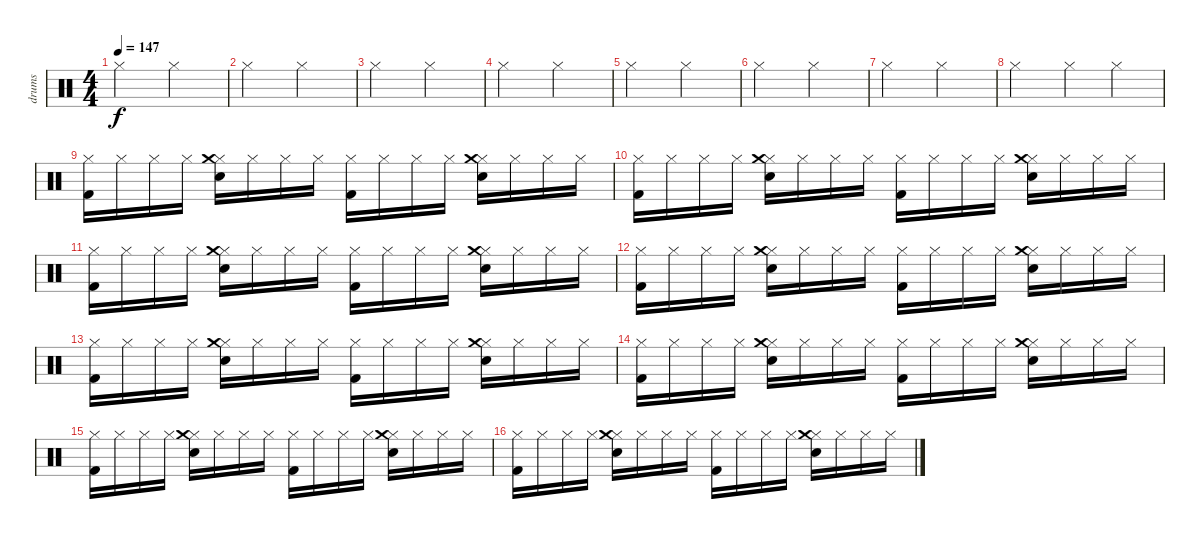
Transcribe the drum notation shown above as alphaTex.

\track ("drums" "drums") {instrument percussion}
\staff {score}
\articulation defaults
\ts (4 4)
\tempo 147
\clef neutral
\ks c "Hi-Hat (closed)".2{dy f} "Hi-Hat (closed)".2
|
"Hi-Hat (closed)".2 "Hi-Hat (closed)".2 |
"Hi-Hat (closed)".2 "Hi-Hat (closed)".2 |
"Hi-Hat (closed)".2 "Hi-Hat (closed)".2 |
"Hi-Hat (closed)".2 "Hi-Hat (closed)".2 |
"Hi-Hat (closed)".2 "Hi-Hat (closed)".2 |
"Hi-Hat (closed)".2 "Hi-Hat (closed)".2 |
"Hi-Hat (closed)".2 "Hi-Hat (closed)".4 "Hi-Hat (closed)".4 |
("Hi-Hat (closed)" "Kick (hit) 2").16 "Hi-Hat (closed)".16 "Hi-Hat (closed)".16 "Hi-Hat (closed)".16 ("Hi-Hat (closed)" "Snare (hit) 2" "Crash medium (hit)").16 "Hi-Hat (closed)".16 "Hi-Hat (closed)".16 "Hi-Hat (closed)".16 ("Hi-Hat (closed)" "Kick (hit) 2").16 "Hi-Hat (closed)".16 "Hi-Hat (closed)".16 "Hi-Hat (closed)".16 ("Hi-Hat (closed)" "Snare (hit) 2" "Crash medium (hit)").16 "Hi-Hat (closed)".16 "Hi-Hat (closed)".16 "Hi-Hat (closed)".16 |
("Hi-Hat (closed)" "Kick (hit) 2").16 "Hi-Hat (closed)".16 "Hi-Hat (closed)".16 "Hi-Hat (closed)".16 ("Hi-Hat (closed)" "Snare (hit) 2" "Crash medium (hit)").16 "Hi-Hat (closed)".16 "Hi-Hat (closed)".16 "Hi-Hat (closed)".16 ("Hi-Hat (closed)" "Kick (hit) 2").16 "Hi-Hat (closed)".16 "Hi-Hat (closed)".16 "Hi-Hat (closed)".16 ("Hi-Hat (closed)" "Snare (hit) 2" "Crash medium (hit)").16 "Hi-Hat (closed)".16 "Hi-Hat (closed)".16 "Hi-Hat (closed)".16 |
("Hi-Hat (closed)" "Kick (hit) 2").16 "Hi-Hat (closed)".16 "Hi-Hat (closed)".16 "Hi-Hat (closed)".16 ("Hi-Hat (closed)" "Snare (hit) 2" "Crash medium (hit)").16 "Hi-Hat (closed)".16 "Hi-Hat (closed)".16 "Hi-Hat (closed)".16 ("Hi-Hat (closed)" "Kick (hit) 2").16 "Hi-Hat (closed)".16 "Hi-Hat (closed)".16 "Hi-Hat (closed)".16 ("Hi-Hat (closed)" "Snare (hit) 2" "Crash medium (hit)").16 "Hi-Hat (closed)".16 "Hi-Hat (closed)".16 "Hi-Hat (closed)".16 |
("Hi-Hat (closed)" "Kick (hit) 2").16 "Hi-Hat (closed)".16 "Hi-Hat (closed)".16 "Hi-Hat (closed)".16 ("Hi-Hat (closed)" "Snare (hit) 2" "Crash medium (hit)").16 "Hi-Hat (closed)".16 "Hi-Hat (closed)".16 "Hi-Hat (closed)".16 ("Hi-Hat (closed)" "Kick (hit) 2").16 "Hi-Hat (closed)".16 "Hi-Hat (closed)".16 "Hi-Hat (closed)".16 ("Hi-Hat (closed)" "Snare (hit) 2" "Crash medium (hit)").16 "Hi-Hat (closed)".16 "Hi-Hat (closed)".16 "Hi-Hat (closed)".16 |
("Hi-Hat (closed)" "Kick (hit) 2").16 "Hi-Hat (closed)".16 "Hi-Hat (closed)".16 "Hi-Hat (closed)".16 ("Hi-Hat (closed)" "Snare (hit) 2" "Crash medium (hit)").16 "Hi-Hat (closed)".16 "Hi-Hat (closed)".16 "Hi-Hat (closed)".16 ("Hi-Hat (closed)" "Kick (hit) 2").16 "Hi-Hat (closed)".16 "Hi-Hat (closed)".16 "Hi-Hat (closed)".16 ("Hi-Hat (closed)" "Snare (hit) 2" "Crash medium (hit)").16 "Hi-Hat (closed)".16 "Hi-Hat (closed)".16 "Hi-Hat (closed)".16 |
("Hi-Hat (closed)" "Kick (hit) 2").16 "Hi-Hat (closed)".16 "Hi-Hat (closed)".16 "Hi-Hat (closed)".16 ("Hi-Hat (closed)" "Snare (hit) 2" "Crash medium (hit)").16 "Hi-Hat (closed)".16 "Hi-Hat (closed)".16 "Hi-Hat (closed)".16 ("Hi-Hat (closed)" "Kick (hit) 2").16 "Hi-Hat (closed)".16 "Hi-Hat (closed)".16 "Hi-Hat (closed)".16 ("Hi-Hat (closed)" "Snare (hit) 2" "Crash medium (hit)").16 "Hi-Hat (closed)".16 "Hi-Hat (closed)".16 "Hi-Hat (closed)".16 |
("Hi-Hat (closed)" "Kick (hit) 2").16 "Hi-Hat (closed)".16 "Hi-Hat (closed)".16 "Hi-Hat (closed)".16 ("Hi-Hat (closed)" "Snare (hit) 2" "Crash medium (hit)").16 "Hi-Hat (closed)".16 "Hi-Hat (closed)".16 "Hi-Hat (closed)".16 ("Hi-Hat (closed)" "Kick (hit) 2").16 "Hi-Hat (closed)".16 "Hi-Hat (closed)".16 "Hi-Hat (closed)".16 ("Hi-Hat (closed)" "Snare (hit) 2" "Crash medium (hit)").16 "Hi-Hat (closed)".16 "Hi-Hat (closed)".16 "Hi-Hat (closed)".16 |
("Hi-Hat (closed)" "Kick (hit) 2").16 "Hi-Hat (closed)".16 "Hi-Hat (closed)".16 "Hi-Hat (closed)".16 ("Hi-Hat (closed)" "Snare (hit) 2" "Crash medium (hit)").16 "Hi-Hat (closed)".16 "Hi-Hat (closed)".16 "Hi-Hat (closed)".16 ("Hi-Hat (closed)" "Kick (hit) 2").16 "Hi-Hat (closed)".16 "Hi-Hat (closed)".16 "Hi-Hat (closed)".16 ("Hi-Hat (closed)" "Snare (hit) 2" "Crash medium (hit)").16 "Hi-Hat (closed)".16 "Hi-Hat (closed)".16 "Hi-Hat (closed)".16
